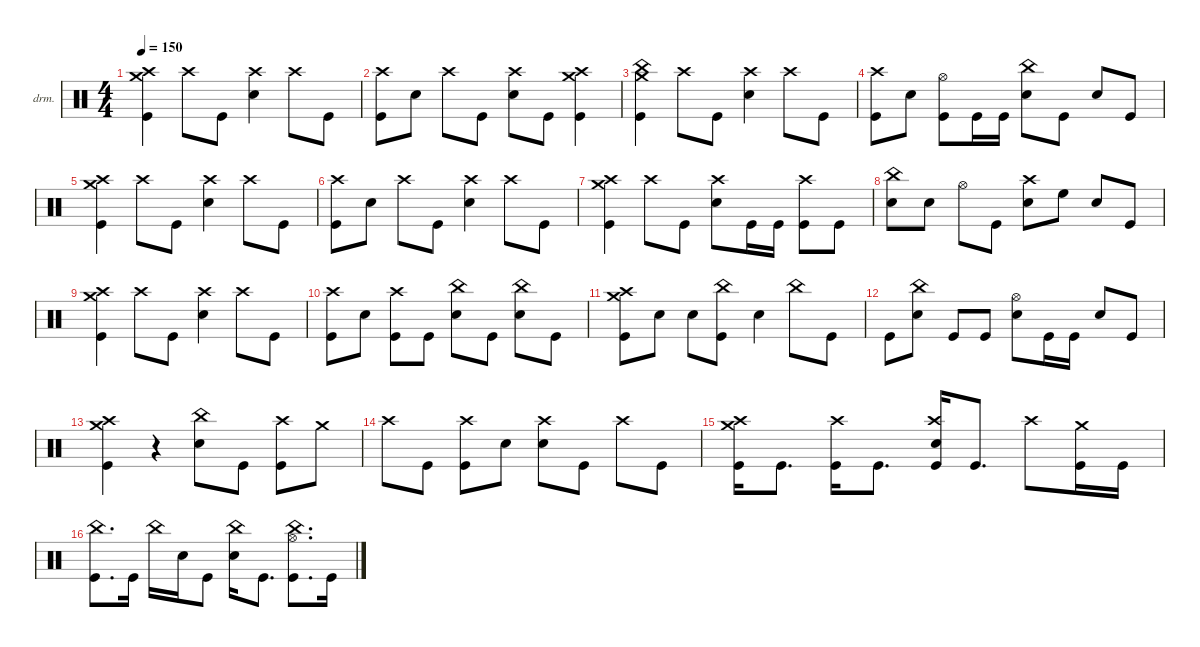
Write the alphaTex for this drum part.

\defaultSystemsLayout 4
\hideDynamics
\bracketExtendMode nobrackets
\firstSystemTrackNameOrientation horizontal
\track ("Drumkit" "drm.") {instrument percussion}
\staff {score}
\articulation defaults
\ts (4 4)
\tempo 150
\clef neutral
\ks c
("Kick (hit)" "Crash high (hit)"{acc #} "Crash medium (hit)").4{dy ff} "Crash high (hit)"{acc #}.8 "Kick (hit)".8{dy fff} ("Snare (hit) 2" "Crash high (hit)"{acc #}).4 "Crash high (hit)"{acc #}.8{dy ff} "Kick (hit)".8{dy fff} |
("Kick (hit)" "Crash high (hit)"{acc #}).8 "Snare (hit) 2".8 "Crash high (hit)"{acc #}.8{dy ff} "Kick (hit)".8{dy fff} ("Snare (hit) 2" "Crash high (hit)"{acc #}).8 "Kick (hit)".8 ("Kick (hit)" "Crash high (hit)"{acc #} "Crash medium (hit)").4 |
("Kick (hit)" "China (hit)" "Crash medium (hit)").4 "Crash high (hit)"{acc #}.8{dy ff} "Kick (hit)".8{dy fff} ("Snare (hit) 2" "Crash high (hit)"{acc #}).4 "Crash high (hit)"{acc #}.8{dy ff} "Kick (hit)".8{dy fff} |
("Kick (hit)" "Crash high (hit)"{acc #}).8 "Snare (hit) 2".8 ("Kick (hit)" "Hi-Hat (open)"{acc #}).8 "Kick (hit)".16 "Kick (hit)".16 ("Snare (hit) 2" "China (hit)").8 "Kick (hit)".8 "Snare (hit) 2".8 "Kick (hit)".8 |
("Kick (hit)" "Crash high (hit)"{acc #} "Crash medium (hit)").4 "Crash high (hit)"{acc #}.8{dy ff} "Kick (hit)".8{dy fff} ("Snare (hit) 2" "Crash high (hit)"{acc #}).4 "Crash high (hit)"{acc #}.8{dy ff} "Kick (hit)".8{dy fff} |
("Kick (hit)" "Crash high (hit)"{acc #}).8 "Snare (hit) 2".8{dy p} "Crash high (hit)"{acc #}.8{dy ff} "Kick (hit)".8{dy fff} ("Snare (hit) 2" "Crash high (hit)"{acc #}).4 "Crash high (hit)"{acc #}.8{dy ff} "Kick (hit)".8{dy fff} |
("Crash high (hit)"{acc #} "Kick (hit)" "Crash medium (hit)").4{dy ff} "Crash high (hit)"{acc #}.8 "Kick (hit)".8{dy fff} ("Snare (hit) 2" "Crash high (hit)"{acc #}).8 "Kick (hit)".16 "Kick (hit)".16 ("Kick (hit)" "Crash high (hit)"{acc #}).8 "Kick (hit)".8 |
("Snare (hit) 2" "China (hit)").8{dy ff} "Snare (hit) 2".8{dy fff} "Hi-Hat (open)"{acc #}.8{dy ff} "Kick (hit)".8{dy fff} ("Snare (hit) 2" "Crash high (hit)"{acc #}).8 "High Floor Tom (hit)".8{dy ff} "Snare (hit) 2".8 "Kick (hit)".8{dy fff} |
("Kick (hit)" "Crash high (hit)"{acc #} "Crash medium (hit)").4 "Crash high (hit)"{acc #}.8{dy ff} "Kick (hit)".8{dy fff} ("Snare (hit) 2" "Crash high (hit)"{acc #}).4 "Crash high (hit)"{acc #}.8{dy ff} "Kick (hit)".8{dy fff} |
("Kick (hit)" "Crash high (hit)"{acc #}).8 "Snare (hit) 2".8 ("Kick (hit)" "Crash high (hit)"{acc #}).8 "Kick (hit)".8 ("Snare (hit) 2" "China (hit)").8 "Kick (hit)".8 ("Snare (hit) 2" "China (hit)").8 "Kick (hit)".8 |
("Kick (hit)" "Crash high (hit)"{acc #} "Crash medium (hit)").8{dy ff} "Snare (hit) 2".8{dy pp} "Snare (hit) 2".8{dy p} ("Kick (hit)" "China (hit)").8{dy fff} "Snare (hit) 2".4 "China (hit)".8{dy ff} "Kick (hit)".8{dy fff} |
"Kick (hit)".8 ("Snare (hit) 2" "China (hit)").8 "Kick (hit)".8 "Kick (hit)".8 ("Snare (hit) 2" "Hi-Hat (open)"{acc #}).8 "Kick (hit)".16 "Kick (hit)".16 "Snare (hit) 2".8{dy f} "Kick (hit)".8{dy fff} |
("Kick (hit)" "Crash high (hit)"{acc #} "Crash medium (hit)").4 r.4 ("Snare (hit) 2" "China (hit)").8 "Kick (hit)".8 ("Kick (hit)" "Crash high (hit)"{acc #}).8 "Crash medium (hit)".8{dy ff} |
"Crash high (hit)"{acc #}.8 "Kick (hit)".8{dy fff} ("Kick (hit)" "Crash high (hit)"{acc #}).8 "Snare (hit) 2".8{dy p} ("Snare (hit) 2" "Crash high (hit)"{acc #}).8{dy ff} "Kick (hit)".8{dy fff} "Crash high (hit)"{acc #}.8{dy ff} "Kick (hit)".8{dy fff} |
("Kick (hit)" "Crash high (hit)"{acc #} "Crash medium (hit)").16 "Kick (hit)".8{d} ("Kick (hit)" "Crash high (hit)"{acc #}).16 "Kick (hit)".8{d} ("Kick (hit)" "Snare (hit) 2" "Crash high (hit)"{acc #}).16 "Kick (hit)".8{d} "Crash high (hit)"{acc #}.8{dy ff} ("Kick (hit)" "Crash medium (hit)").16 "Kick (hit)".16{dy fff} |
("Kick (hit)" "China (hit)").8{d dy ff} "Kick (hit)".16{dy fff} "China (hit)".16{dy ff} "Snare (hit) 2".16{dy pp} "Kick (hit)".8{dy fff} ("Snare (hit) 2" "China (hit)").16 "Kick (hit)".8{d} ("Kick (hit)" "Hi-Hat (open)"{acc #} "China (hit)").8{d} "Kick (hit)".16
